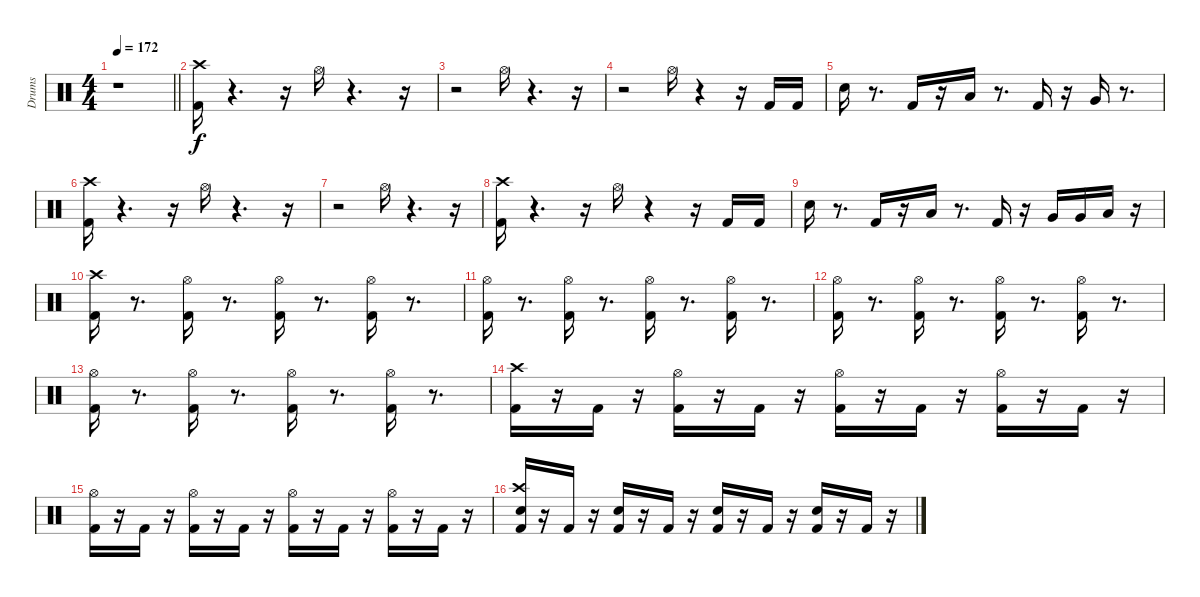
\track ("Drums" "Drums") {instrument percussion}
\staff {score}
\articulation defaults
\ts (4 4)
\tempo 172
\clef neutral
\barLineRight lightlight
\ks c
r.1{dy f} |
\section ("" " ")
("Kick (hit) 2" "Crash high (hit)").16 r.4{d} r.16 "Hi-Hat (open)".16 r.4{d} r.16 |
r.2 "Hi-Hat (open)".16 r.4{d} r.16 |
r.2 "Hi-Hat (open)".16 r.4 r.16 "Kick (hit) 2".16 "Kick (hit) 2".16 |
"Snare (hit) 2".16 r.8{d} "Kick (hit) 2".16 r.16 "Low Tom (hit)".16 r.8{d} "Kick (hit) 2".16 r.16 "Very Low Tom (hit)".16 r.8{d} |
("Kick (hit) 2" "Crash high (hit)").16 r.4{d} r.16 "Hi-Hat (open)".16 r.4{d} r.16 |
r.2 "Hi-Hat (open)".16 r.4{d} r.16 |
("Kick (hit) 2" "Crash high (hit)").16 r.4{d} r.16 "Hi-Hat (open)".16 r.4 r.16 "Kick (hit) 2".16 "Kick (hit) 2".16 |
"Snare (hit) 2".16 r.8{d} "Kick (hit) 2".16 r.16 "Low Tom (hit)".16 r.8{d} "Kick (hit) 2".16 r.16 "Very Low Tom (hit)".16 "Very Low Tom (hit)".16 "Low Floor Tom (hit)".16 r.16 |
("Kick (hit) 2" "Crash high (hit)").16 r.8{d} ("Kick (hit) 2" "Hi-Hat (open)").16 r.8{d} ("Kick (hit) 2" "Hi-Hat (open)").16 r.8{d} ("Kick (hit) 2" "Hi-Hat (open)").16 r.8{d} |
("Kick (hit) 2" "Hi-Hat (open)").16 r.8{d} ("Kick (hit) 2" "Hi-Hat (open)").16 r.8{d} ("Kick (hit) 2" "Hi-Hat (open)").16 r.8{d} ("Kick (hit) 2" "Hi-Hat (open)").16 r.8{d} |
("Kick (hit) 2" "Hi-Hat (open)").16 r.8{d} ("Kick (hit) 2" "Hi-Hat (open)").16 r.8{d} ("Kick (hit) 2" "Hi-Hat (open)").16 r.8{d} ("Kick (hit) 2" "Hi-Hat (open)").16 r.8{d} |
("Kick (hit) 2" "Hi-Hat (open)").16 r.8{d} ("Kick (hit) 2" "Hi-Hat (open)").16 r.8{d} ("Kick (hit) 2" "Hi-Hat (open)").16 r.8{d} ("Kick (hit) 2" "Hi-Hat (open)").16 r.8{d} |
("Kick (hit) 2" "Crash high (hit)").16 r.16 "Kick (hit) 2".16 r.16 ("Kick (hit) 2" "Hi-Hat (open)").16 r.16 "Kick (hit) 2".16 r.16 ("Kick (hit) 2" "Hi-Hat (open)").16 r.16 "Kick (hit) 2".16 r.16 ("Kick (hit) 2" "Hi-Hat (open)").16 r.16 "Kick (hit) 2".16 r.16 |
("Kick (hit) 2" "Hi-Hat (open)").16 r.16 "Kick (hit) 2".16 r.16 ("Kick (hit) 2" "Hi-Hat (open)").16 r.16 "Kick (hit) 2".16 r.16 ("Kick (hit) 2" "Hi-Hat (open)").16 r.16 "Kick (hit) 2".16 r.16 ("Kick (hit) 2" "Hi-Hat (open)").16 r.16 "Kick (hit) 2".16 r.16 |
("Kick (hit) 2" "Snare (hit) 2" "Crash high (hit)").16 r.16 "Kick (hit) 2".16 r.16 ("Kick (hit) 2" "Snare (hit) 2").16 r.16 "Kick (hit) 2".16 r.16 ("Kick (hit) 2" "Snare (hit) 2").16 r.16 "Kick (hit) 2".16 r.16 ("Kick (hit) 2" "Snare (hit) 2").16 r.16 "Kick (hit) 2".16 r.16
